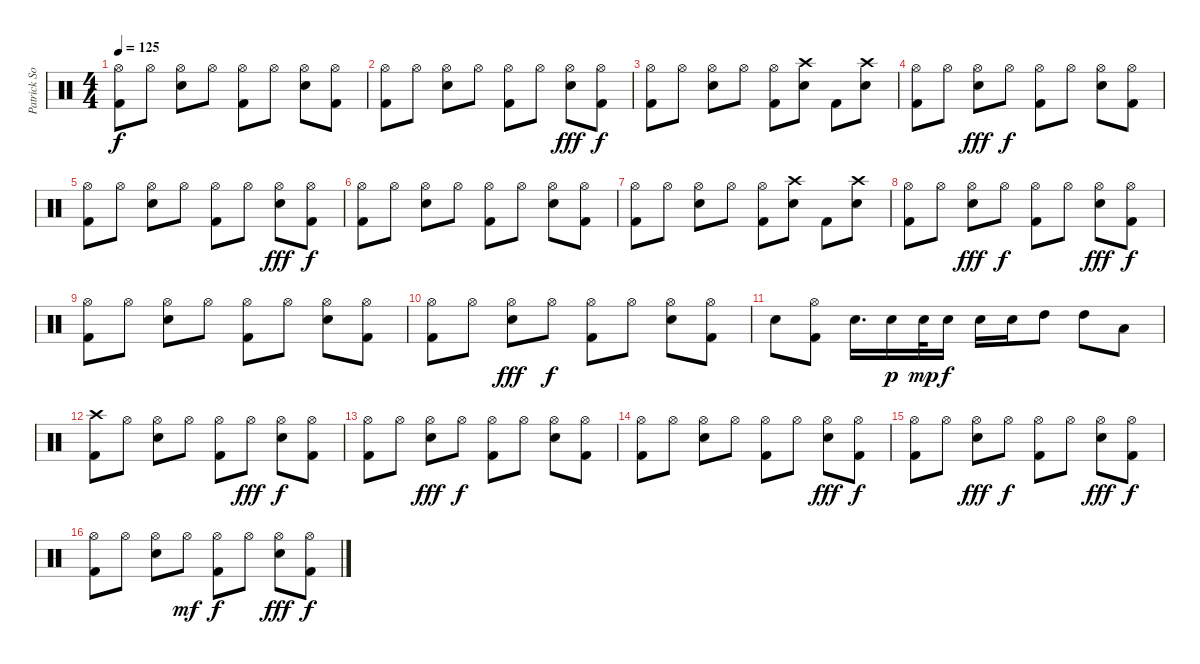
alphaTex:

\track ("Patrick Soria" "Patrick So") {instrument percussion}
\staff {score}
\articulation defaults
\ts (4 4)
\tempo 125
\clef neutral
\ks c
("Hi-Hat (open)" "Kick (hit) 2").8{dy f} "Hi-Hat (open)".8 ("Hi-Hat (open)" "Snare (hit) 2").8 "Hi-Hat (open)".8 ("Hi-Hat (open)" "Kick (hit) 2").8 "Hi-Hat (open)".8 ("Hi-Hat (open)" "Snare (hit) 2").8 ("Hi-Hat (open)" "Kick (hit) 2").8 |
("Hi-Hat (open)" "Kick (hit) 2").8 "Hi-Hat (open)".8 ("Hi-Hat (open)" "Snare (hit) 2").8 "Hi-Hat (open)".8 ("Hi-Hat (open)" "Kick (hit) 2").8 "Hi-Hat (open)".8 ("Hi-Hat (open)" "Snare (hit) 2").8{dy fff} ("Hi-Hat (open)" "Kick (hit) 2").8{dy f} |
("Hi-Hat (open)" "Kick (hit) 2").8 "Hi-Hat (open)".8 ("Hi-Hat (open)" "Snare (hit) 2").8 "Hi-Hat (open)".8 ("Hi-Hat (open)" "Kick (hit) 2").8 ("Crash high (hit)" "Snare (hit) 2").8 "Kick (hit) 2".8 ("Crash high (hit)" "Snare (hit) 2").8 |
("Hi-Hat (open)" "Kick (hit) 2").8 "Hi-Hat (open)".8 ("Hi-Hat (open)" "Snare (hit) 2").8{dy fff} "Hi-Hat (open)".8{dy f} ("Hi-Hat (open)" "Kick (hit) 2").8 "Hi-Hat (open)".8 ("Hi-Hat (open)" "Snare (hit) 2").8 ("Hi-Hat (open)" "Kick (hit) 2").8 |
("Hi-Hat (open)" "Kick (hit) 2").8 "Hi-Hat (open)".8 ("Hi-Hat (open)" "Snare (hit) 2").8 "Hi-Hat (open)".8 ("Hi-Hat (open)" "Kick (hit) 2").8 "Hi-Hat (open)".8 ("Hi-Hat (open)" "Snare (hit) 2").8{dy fff} ("Hi-Hat (open)" "Kick (hit) 2").8{dy f} |
("Hi-Hat (open)" "Kick (hit) 2").8 "Hi-Hat (open)".8 ("Hi-Hat (open)" "Snare (hit) 2").8 "Hi-Hat (open)".8 ("Hi-Hat (open)" "Kick (hit) 2").8 "Hi-Hat (open)".8 ("Hi-Hat (open)" "Snare (hit) 2").8 ("Hi-Hat (open)" "Kick (hit) 2").8 |
("Hi-Hat (open)" "Kick (hit) 2").8 "Hi-Hat (open)".8 ("Hi-Hat (open)" "Snare (hit) 2").8 "Hi-Hat (open)".8 ("Hi-Hat (open)" "Kick (hit) 2").8 ("Crash high (hit)" "Snare (hit) 2").8 "Kick (hit) 2".8 ("Crash high (hit)" "Snare (hit) 2").8 |
("Hi-Hat (open)" "Kick (hit) 2").8 "Hi-Hat (open)".8 ("Hi-Hat (open)" "Snare (hit) 2").8{dy fff} "Hi-Hat (open)".8{dy f} ("Hi-Hat (open)" "Kick (hit) 2").8 "Hi-Hat (open)".8 ("Hi-Hat (open)" "Snare (hit) 2").8{dy fff} ("Hi-Hat (open)" "Kick (hit) 2").8{dy f} |
("Hi-Hat (open)" "Kick (hit) 2").8 "Hi-Hat (open)".8 ("Hi-Hat (open)" "Snare (hit) 2").8 "Hi-Hat (open)".8 ("Hi-Hat (open)" "Kick (hit) 2").8 "Hi-Hat (open)".8 ("Hi-Hat (open)" "Snare (hit) 2").8 ("Hi-Hat (open)" "Kick (hit) 2").8 |
("Hi-Hat (open)" "Kick (hit) 2").8 "Hi-Hat (open)".8 ("Hi-Hat (open)" "Snare (hit) 2").8{dy fff} "Hi-Hat (open)".8{dy f} ("Hi-Hat (open)" "Kick (hit) 2").8 "Hi-Hat (open)".8 ("Hi-Hat (open)" "Snare (hit) 2").8 ("Hi-Hat (open)" "Kick (hit) 2").8 |
"Snare (hit) 2".8 ("Hi-Hat (open)" "Kick (hit) 2").8 "Snare (hit) 2".16{d} "Snare (hit) 2".16{dy p} "Snare (hit) 2".32{dy mp} "Snare (hit) 2".16{dy f} "Snare (hit) 2".16 "Snare (hit) 2".16 "High Tom (hit)".8 "High Tom (hit)".8 "Low Tom (hit)".8 |
("Crash high (hit)" "Kick (hit) 2").8 "Hi-Hat (open)".8 ("Hi-Hat (open)" "Snare (hit) 2").8 "Hi-Hat (open)".8 ("Hi-Hat (open)" "Kick (hit) 2").8 "Hi-Hat (open)".8{dy fff} ("Hi-Hat (open)" "Snare (hit) 2").8{dy f} ("Hi-Hat (open)" "Kick (hit) 2").8 |
("Hi-Hat (open)" "Kick (hit) 2").8 "Hi-Hat (open)".8 ("Hi-Hat (open)" "Snare (hit) 2").8{dy fff} "Hi-Hat (open)".8{dy f} ("Hi-Hat (open)" "Kick (hit) 2").8 "Hi-Hat (open)".8 ("Hi-Hat (open)" "Snare (hit) 2").8 ("Hi-Hat (open)" "Kick (hit) 2").8 |
("Hi-Hat (open)" "Kick (hit) 2").8 "Hi-Hat (open)".8 ("Hi-Hat (open)" "Snare (hit) 2").8 "Hi-Hat (open)".8 ("Hi-Hat (open)" "Kick (hit) 2").8 "Hi-Hat (open)".8 ("Hi-Hat (open)" "Snare (hit) 2").8{dy fff} ("Hi-Hat (open)" "Kick (hit) 2").8{dy f} |
("Hi-Hat (open)" "Kick (hit) 2").8 "Hi-Hat (open)".8 ("Hi-Hat (open)" "Snare (hit) 2").8{dy fff} "Hi-Hat (open)".8{dy f} ("Hi-Hat (open)" "Kick (hit) 2").8 "Hi-Hat (open)".8 ("Hi-Hat (open)" "Snare (hit) 2").8{dy fff} ("Hi-Hat (open)" "Kick (hit) 2").8{dy f} |
("Hi-Hat (open)" "Kick (hit) 2").8 "Hi-Hat (open)".8 ("Hi-Hat (open)" "Snare (hit) 2").8 "Hi-Hat (open)".8{dy mf} ("Hi-Hat (open)" "Kick (hit) 2").8{dy f} "Hi-Hat (open)".8 ("Hi-Hat (open)" "Snare (hit) 2").8{dy fff} ("Hi-Hat (open)" "Kick (hit) 2").8{dy f}
